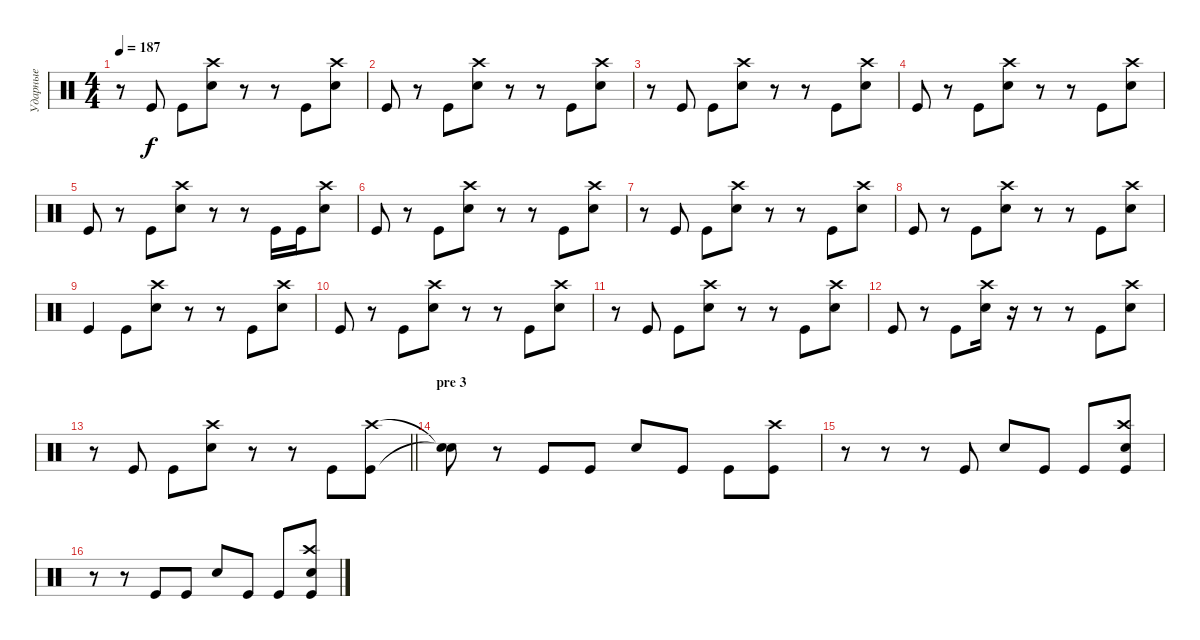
\track ("Ударные" "Ударные") {instrument percussion}
\staff {score}
\articulation defaults
\ts (4 4)
\tempo 187
\clef neutral
\ks c
r.8{dy f} "Kick (hit)".8 "Kick (hit)".8 ("Crash high (hit)" "Electric Snare (hit)").8 r.8 r.8 "Kick (hit)".8 ("Crash high (hit)" "Electric Snare (hit)").8 |
"Kick (hit)".8 r.8 "Kick (hit)".8 ("Crash high (hit)" "Electric Snare (hit)").8 r.8 r.8 "Kick (hit)".8 ("Crash high (hit)" "Electric Snare (hit)").8 |
r.8 "Kick (hit)".8 "Kick (hit)".8 ("Crash high (hit)" "Electric Snare (hit)").8 r.8 r.8 "Kick (hit)".8 ("Crash high (hit)" "Electric Snare (hit)").8 |
"Kick (hit)".8 r.8 "Kick (hit)".8 ("Crash high (hit)" "Electric Snare (hit)").8 r.8 r.8 "Kick (hit)".8 ("Crash high (hit)" "Electric Snare (hit)").8 |
"Kick (hit)".8 r.8 "Kick (hit)".8 ("Crash high (hit)" "Electric Snare (hit)").8 r.8 r.8 "Kick (hit)".16 "Kick (hit)".16 ("Crash high (hit)" "Electric Snare (hit)").8 |
"Kick (hit)".8 r.8 "Kick (hit)".8 ("Crash high (hit)" "Electric Snare (hit)").8 r.8 r.8 "Kick (hit)".8 ("Crash high (hit)" "Electric Snare (hit)").8 |
r.8 "Kick (hit)".8 "Kick (hit)".8 ("Crash high (hit)" "Electric Snare (hit)").8 r.8 r.8 "Kick (hit)".8 ("Crash high (hit)" "Electric Snare (hit)").8 |
"Kick (hit)".8 r.8 "Kick (hit)".8 ("Crash high (hit)" "Electric Snare (hit)").8 r.8 r.8 "Kick (hit)".8 ("Crash high (hit)" "Electric Snare (hit)").8 |
"Kick (hit)".4 "Kick (hit)".8 ("Crash high (hit)" "Electric Snare (hit)").8 r.8 r.8 "Kick (hit)".8 ("Crash high (hit)" "Electric Snare (hit)").8 |
"Kick (hit)".8 r.8 "Kick (hit)".8 ("Crash high (hit)" "Electric Snare (hit)").8 r.8 r.8 "Kick (hit)".8 ("Crash high (hit)" "Electric Snare (hit)").8 |
r.8 "Kick (hit)".8 "Kick (hit)".8 ("Crash high (hit)" "Electric Snare (hit)").8 r.8 r.8 "Kick (hit)".8 ("Crash high (hit)" "Electric Snare (hit)").8 |
"Kick (hit)".8 r.8 "Kick (hit)".8 ("Crash high (hit)" "Electric Snare (hit)").16 r.16 r.8 r.8 "Kick (hit)".8 ("Crash high (hit)" "Electric Snare (hit)").8 |
\barLineRight lightlight
r.8 "Kick (hit)".8 "Kick (hit)".8 ("Crash high (hit)" "Electric Snare (hit)").8 r.8 r.8 "Kick (hit)".8 ("Crash high (hit)" "Kick (hit)").8 |
\section ("" "pre 3")
("Snare (hit)"{t} "Snare (hit)"{t}).8 r.8 "Kick (hit)".8 "Kick (hit)".8 "Electric Snare (hit)".8 "Kick (hit)".8 "Kick (hit)".8 ("Crash high (hit)" "Kick (hit)").8 |
r.8 r.8 r.8 "Kick (hit)".8 "Electric Snare (hit)".8 "Kick (hit)".8 "Kick (hit)".8 ("Crash high (hit)" "Electric Snare (hit)" "Kick (hit)").8 |
r.8 r.8 "Kick (hit)".8 "Kick (hit)".8 "Electric Snare (hit)".8 "Kick (hit)".8 "Kick (hit)".8 ("Crash high (hit)" "Electric Snare (hit)" "Kick (hit)").8
